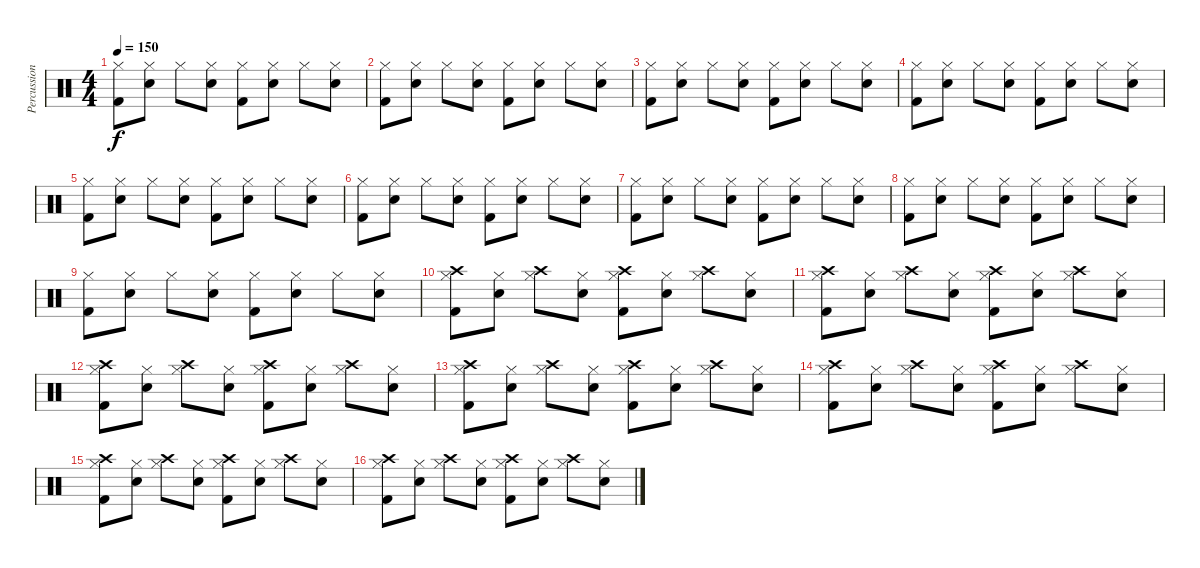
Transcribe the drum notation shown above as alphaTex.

\track ("Percussion" "Percussion") {instrument percussion}
\staff {score}
\articulation defaults
\ts (4 4)
\tempo 150
\clef neutral
\ks c
("Hi-Hat (closed)" "Kick (hit) 2").8{dy f} ("Hi-Hat (closed)" "Electric Snare (hit)").8 "Hi-Hat (closed)".8 ("Hi-Hat (closed)" "Electric Snare (hit)").8 ("Hi-Hat (closed)" "Kick (hit) 2").8 ("Hi-Hat (closed)" "Electric Snare (hit)").8 "Hi-Hat (closed)".8 ("Hi-Hat (closed)" "Electric Snare (hit)").8 |
("Hi-Hat (closed)" "Kick (hit) 2").8 ("Hi-Hat (closed)" "Electric Snare (hit)").8 "Hi-Hat (closed)".8 ("Hi-Hat (closed)" "Electric Snare (hit)").8 ("Hi-Hat (closed)" "Kick (hit) 2").8 ("Hi-Hat (closed)" "Electric Snare (hit)").8 "Hi-Hat (closed)".8 ("Hi-Hat (closed)" "Electric Snare (hit)").8 |
("Hi-Hat (closed)" "Kick (hit) 2").8 ("Hi-Hat (closed)" "Electric Snare (hit)").8 "Hi-Hat (closed)".8 ("Hi-Hat (closed)" "Electric Snare (hit)").8 ("Hi-Hat (closed)" "Kick (hit) 2").8 ("Hi-Hat (closed)" "Electric Snare (hit)").8 "Hi-Hat (closed)".8 ("Hi-Hat (closed)" "Electric Snare (hit)").8 |
("Hi-Hat (closed)" "Kick (hit) 2").8 ("Hi-Hat (closed)" "Electric Snare (hit)").8 "Hi-Hat (closed)".8 ("Hi-Hat (closed)" "Electric Snare (hit)").8 ("Hi-Hat (closed)" "Kick (hit) 2").8 ("Hi-Hat (closed)" "Electric Snare (hit)").8 "Hi-Hat (closed)".8 ("Hi-Hat (closed)" "Electric Snare (hit)").8 |
("Hi-Hat (closed)" "Kick (hit) 2").8 ("Hi-Hat (closed)" "Electric Snare (hit)").8 "Hi-Hat (closed)".8 ("Hi-Hat (closed)" "Electric Snare (hit)").8 ("Hi-Hat (closed)" "Kick (hit) 2").8 ("Hi-Hat (closed)" "Electric Snare (hit)").8 "Hi-Hat (closed)".8 ("Hi-Hat (closed)" "Electric Snare (hit)").8 |
("Hi-Hat (closed)" "Kick (hit) 2").8 ("Hi-Hat (closed)" "Electric Snare (hit)").8 "Hi-Hat (closed)".8 ("Hi-Hat (closed)" "Electric Snare (hit)").8 ("Hi-Hat (closed)" "Kick (hit) 2").8 ("Hi-Hat (closed)" "Electric Snare (hit)").8 "Hi-Hat (closed)".8 ("Hi-Hat (closed)" "Electric Snare (hit)").8 |
("Hi-Hat (closed)" "Kick (hit) 2").8 ("Hi-Hat (closed)" "Electric Snare (hit)").8 "Hi-Hat (closed)".8 ("Hi-Hat (closed)" "Electric Snare (hit)").8 ("Hi-Hat (closed)" "Kick (hit) 2").8 ("Hi-Hat (closed)" "Electric Snare (hit)").8 "Hi-Hat (closed)".8 ("Hi-Hat (closed)" "Electric Snare (hit)").8 |
("Hi-Hat (closed)" "Kick (hit) 2").8 ("Hi-Hat (closed)" "Electric Snare (hit)").8 "Hi-Hat (closed)".8 ("Hi-Hat (closed)" "Electric Snare (hit)").8 ("Hi-Hat (closed)" "Kick (hit) 2").8 ("Hi-Hat (closed)" "Electric Snare (hit)").8 "Hi-Hat (closed)".8 ("Hi-Hat (closed)" "Electric Snare (hit)").8 |
("Hi-Hat (closed)" "Kick (hit) 2").8 ("Hi-Hat (closed)" "Electric Snare (hit)").8 "Hi-Hat (closed)".8 ("Hi-Hat (closed)" "Electric Snare (hit)").8 ("Hi-Hat (closed)" "Kick (hit) 2").8 ("Hi-Hat (closed)" "Electric Snare (hit)").8 "Hi-Hat (closed)".8 ("Hi-Hat (closed)" "Electric Snare (hit)").8 |
("Hi-Hat (closed)" "Kick (hit) 2" "Crash high (hit)").8 ("Hi-Hat (closed)" "Electric Snare (hit)").8 ("Hi-Hat (closed)" "Crash high (hit)").8 ("Hi-Hat (closed)" "Electric Snare (hit)").8 ("Hi-Hat (closed)" "Kick (hit) 2" "Crash high (hit)").8 ("Hi-Hat (closed)" "Electric Snare (hit)").8 ("Hi-Hat (closed)" "Crash high (hit)").8 ("Hi-Hat (closed)" "Electric Snare (hit)").8 |
("Hi-Hat (closed)" "Kick (hit) 2" "Crash high (hit)").8 ("Hi-Hat (closed)" "Electric Snare (hit)").8 ("Hi-Hat (closed)" "Crash high (hit)").8 ("Hi-Hat (closed)" "Electric Snare (hit)").8 ("Hi-Hat (closed)" "Kick (hit) 2" "Crash high (hit)").8 ("Hi-Hat (closed)" "Electric Snare (hit)").8 ("Hi-Hat (closed)" "Crash high (hit)").8 ("Hi-Hat (closed)" "Electric Snare (hit)").8 |
("Hi-Hat (closed)" "Kick (hit) 2" "Crash high (hit)").8 ("Hi-Hat (closed)" "Electric Snare (hit)").8 ("Hi-Hat (closed)" "Crash high (hit)").8 ("Hi-Hat (closed)" "Electric Snare (hit)").8 ("Hi-Hat (closed)" "Kick (hit) 2" "Crash high (hit)").8 ("Hi-Hat (closed)" "Electric Snare (hit)").8 ("Hi-Hat (closed)" "Crash high (hit)").8 ("Hi-Hat (closed)" "Electric Snare (hit)").8 |
("Hi-Hat (closed)" "Kick (hit) 2" "Crash high (hit)").8 ("Hi-Hat (closed)" "Electric Snare (hit)").8 ("Hi-Hat (closed)" "Crash high (hit)").8 ("Hi-Hat (closed)" "Electric Snare (hit)").8 ("Hi-Hat (closed)" "Kick (hit) 2" "Crash high (hit)").8 ("Hi-Hat (closed)" "Electric Snare (hit)").8 ("Hi-Hat (closed)" "Crash high (hit)").8 ("Hi-Hat (closed)" "Electric Snare (hit)").8 |
("Hi-Hat (closed)" "Kick (hit) 2" "Crash high (hit)").8 ("Hi-Hat (closed)" "Electric Snare (hit)").8 ("Hi-Hat (closed)" "Crash high (hit)").8 ("Hi-Hat (closed)" "Electric Snare (hit)").8 ("Hi-Hat (closed)" "Kick (hit) 2" "Crash high (hit)").8 ("Hi-Hat (closed)" "Electric Snare (hit)").8 ("Hi-Hat (closed)" "Crash high (hit)").8 ("Hi-Hat (closed)" "Electric Snare (hit)").8 |
("Hi-Hat (closed)" "Kick (hit) 2" "Crash high (hit)").8 ("Hi-Hat (closed)" "Electric Snare (hit)").8 ("Hi-Hat (closed)" "Crash high (hit)").8 ("Hi-Hat (closed)" "Electric Snare (hit)").8 ("Hi-Hat (closed)" "Kick (hit) 2" "Crash high (hit)").8 ("Hi-Hat (closed)" "Electric Snare (hit)").8 ("Hi-Hat (closed)" "Crash high (hit)").8 ("Hi-Hat (closed)" "Electric Snare (hit)").8 |
("Hi-Hat (closed)" "Kick (hit) 2" "Crash high (hit)").8 ("Hi-Hat (closed)" "Electric Snare (hit)").8 ("Hi-Hat (closed)" "Crash high (hit)").8 ("Hi-Hat (closed)" "Electric Snare (hit)").8 ("Hi-Hat (closed)" "Kick (hit) 2" "Crash high (hit)").8 ("Hi-Hat (closed)" "Electric Snare (hit)").8 ("Hi-Hat (closed)" "Crash high (hit)").8 ("Hi-Hat (closed)" "Electric Snare (hit)").8
